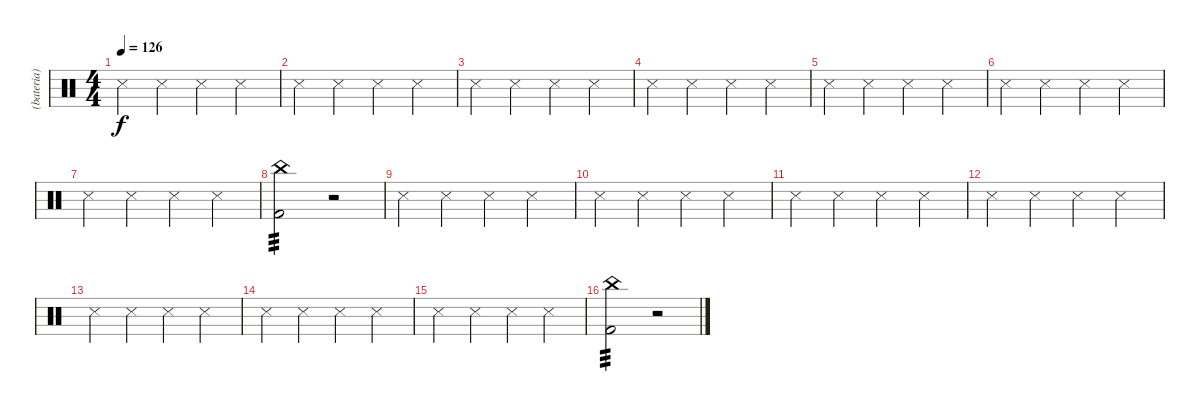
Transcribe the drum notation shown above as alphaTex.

\track ("(bateria)" "(bateria)") {instrument percussion}
\staff {score}
\articulation defaults
\ts (4 4)
\tempo 126
\clef neutral
\ks c "Snare (side stick) 3".4{dy f} "Snare (side stick) 3".4 "Snare (side stick) 3".4 "Snare (side stick) 3".4
|
"Snare (side stick) 3".4 "Snare (side stick) 3".4 "Snare (side stick) 3".4 "Snare (side stick) 3".4 |
"Snare (side stick) 3".4 "Snare (side stick) 3".4 "Snare (side stick) 3".4 "Snare (side stick) 3".4 |
"Snare (side stick) 3".4 "Snare (side stick) 3".4 "Snare (side stick) 3".4 "Snare (side stick) 3".4 |
"Snare (side stick) 3".4 "Snare (side stick) 3".4 "Snare (side stick) 3".4 "Snare (side stick) 3".4 |
"Snare (side stick) 3".4 "Snare (side stick) 3".4 "Snare (side stick) 3".4 "Snare (side stick) 3".4 |
"Snare (side stick) 3".4 "Snare (side stick) 3".4 "Snare (side stick) 3".4 "Snare (side stick) 3".4 |
("Kick (hit) 2" "China (hit)").2{tp 3 volume 0} r.2{volume 13} |
"Snare (side stick) 3".4 "Snare (side stick) 3".4 "Snare (side stick) 3".4 "Snare (side stick) 3".4 |
"Snare (side stick) 3".4 "Snare (side stick) 3".4 "Snare (side stick) 3".4 "Snare (side stick) 3".4 |
"Snare (side stick) 3".4 "Snare (side stick) 3".4 "Snare (side stick) 3".4 "Snare (side stick) 3".4 |
"Snare (side stick) 3".4 "Snare (side stick) 3".4 "Snare (side stick) 3".4 "Snare (side stick) 3".4 |
"Snare (side stick) 3".4 "Snare (side stick) 3".4 "Snare (side stick) 3".4 "Snare (side stick) 3".4 |
"Snare (side stick) 3".4 "Snare (side stick) 3".4 "Snare (side stick) 3".4 "Snare (side stick) 3".4 |
"Snare (side stick) 3".4 "Snare (side stick) 3".4 "Snare (side stick) 3".4 "Snare (side stick) 3".4 |
("Kick (hit) 2" "China (hit)").2{tp 3 volume 0} r.2{volume 13}
